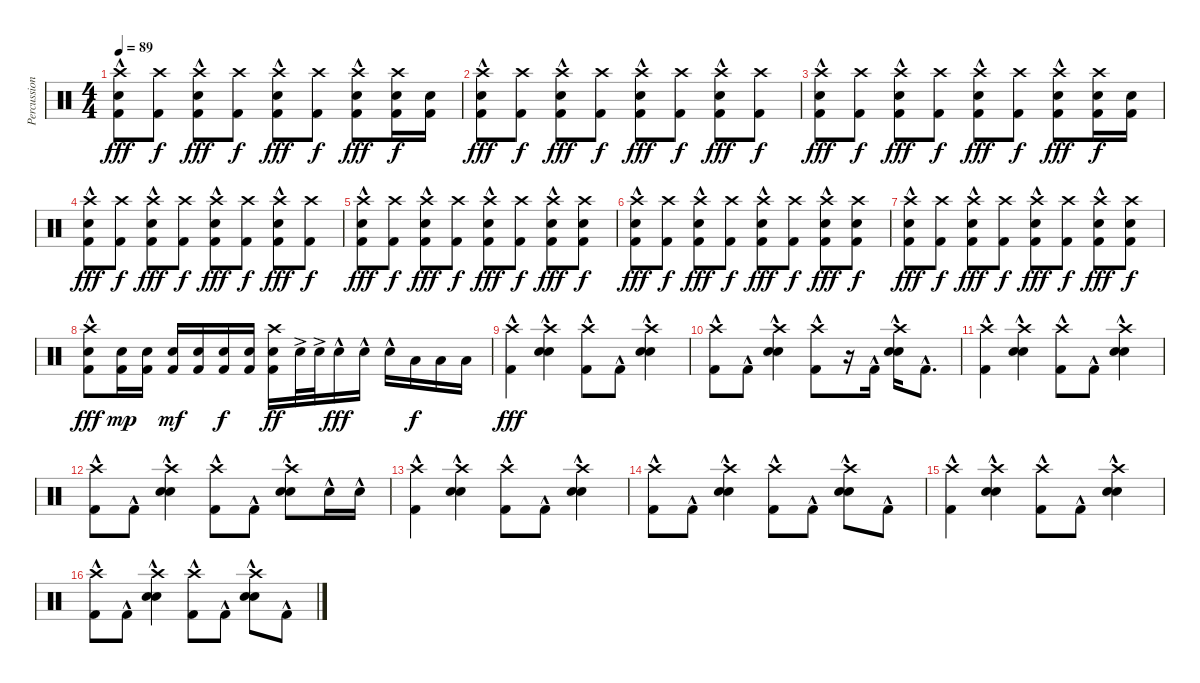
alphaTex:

\track ("Percussion" "Percussion") {instrument percussion}
\staff {score}
\articulation defaults
\ts (4 4)
\tempo 89
\clef neutral
\ks c
("Crash high (hit)" "Electric Snare (hit)" "Kick (hit) 2"{hac}).8{dy fff} ("Crash high (hit)" "Kick (hit) 2").8{dy f} ("Crash high (hit)" "Electric Snare (hit)" "Kick (hit) 2"{hac}).8{dy fff} ("Crash high (hit)" "Kick (hit) 2").8{dy f} ("Crash high (hit)" "Electric Snare (hit)" "Kick (hit) 2"{hac}).8{dy fff} ("Crash high (hit)" "Kick (hit) 2").8{dy f} ("Crash high (hit)" "Electric Snare (hit)" "Kick (hit) 2"{hac}).8{dy fff} ("Crash high (hit)" "Electric Snare (hit)" "Kick (hit) 2").16{dy f} ("Electric Snare (hit)" "Kick (hit) 2").16 |
("Crash high (hit)" "Electric Snare (hit)" "Kick (hit) 2"{hac}).8{dy fff} ("Crash high (hit)" "Kick (hit) 2").8{dy f} ("Crash high (hit)" "Electric Snare (hit)" "Kick (hit) 2"{hac}).8{dy fff} ("Crash high (hit)" "Kick (hit) 2").8{dy f} ("Crash high (hit)" "Electric Snare (hit)" "Kick (hit) 2"{hac}).8{dy fff} ("Crash high (hit)" "Kick (hit) 2").8{dy f} ("Crash high (hit)" "Electric Snare (hit)" "Kick (hit) 2"{hac}).8{dy fff} ("Crash high (hit)" "Kick (hit) 2").8{dy f} |
("Crash high (hit)" "Electric Snare (hit)" "Kick (hit) 2"{hac}).8{dy fff} ("Crash high (hit)" "Kick (hit) 2").8{dy f} ("Crash high (hit)" "Electric Snare (hit)" "Kick (hit) 2"{hac}).8{dy fff} ("Crash high (hit)" "Kick (hit) 2").8{dy f} ("Crash high (hit)" "Electric Snare (hit)" "Kick (hit) 2"{hac}).8{dy fff} ("Crash high (hit)" "Kick (hit) 2").8{dy f} ("Crash high (hit)" "Electric Snare (hit)" "Kick (hit) 2"{hac}).8{dy fff} ("Crash high (hit)" "Electric Snare (hit)" "Kick (hit) 2").16{dy f} ("Electric Snare (hit)" "Kick (hit) 2").16 |
("Crash high (hit)" "Electric Snare (hit)" "Kick (hit) 2"{hac}).8{dy fff} ("Crash high (hit)" "Kick (hit) 2").8{dy f} ("Crash high (hit)" "Electric Snare (hit)" "Kick (hit) 2"{hac}).8{dy fff} ("Crash high (hit)" "Kick (hit) 2").8{dy f} ("Crash high (hit)" "Electric Snare (hit)" "Kick (hit) 2"{hac}).8{dy fff} ("Crash high (hit)" "Kick (hit) 2").8{dy f} ("Crash high (hit)" "Electric Snare (hit)" "Kick (hit) 2"{hac}).8{dy fff} ("Crash high (hit)" "Kick (hit) 2").8{dy f} |
("Crash high (hit)" "Electric Snare (hit)" "Kick (hit) 2"{hac}).8{dy fff} ("Crash high (hit)" "Kick (hit) 2").8{dy f} ("Crash high (hit)" "Electric Snare (hit)" "Kick (hit) 2"{hac}).8{dy fff} ("Crash high (hit)" "Kick (hit) 2").8{dy f} ("Crash high (hit)" "Electric Snare (hit)" "Kick (hit) 2"{hac}).8{dy fff} ("Crash high (hit)" "Kick (hit) 2").8{dy f} ("Crash high (hit)" "Electric Snare (hit)" "Kick (hit) 2"{hac}).8{dy fff} ("Crash high (hit)" "Electric Snare (hit)" "Kick (hit) 2").8{dy f} |
("Crash high (hit)" "Electric Snare (hit)" "Kick (hit) 2"{hac}).8{dy fff} ("Crash high (hit)" "Kick (hit) 2").8{dy f} ("Crash high (hit)" "Electric Snare (hit)" "Kick (hit) 2"{hac}).8{dy fff} ("Crash high (hit)" "Kick (hit) 2").8{dy f} ("Crash high (hit)" "Electric Snare (hit)" "Kick (hit) 2"{hac}).8{dy fff} ("Crash high (hit)" "Kick (hit) 2").8{dy f} ("Crash high (hit)" "Electric Snare (hit)" "Kick (hit) 2"{hac}).8{dy fff} ("Crash high (hit)" "Electric Snare (hit)" "Kick (hit) 2").8{dy f} |
("Crash high (hit)" "Electric Snare (hit)" "Kick (hit) 2"{hac}).8{dy fff} ("Crash high (hit)" "Kick (hit) 2").8{dy f} ("Crash high (hit)" "Electric Snare (hit)" "Kick (hit) 2"{hac}).8{dy fff} ("Crash high (hit)" "Kick (hit) 2").8{dy f} ("Crash high (hit)" "Electric Snare (hit)" "Kick (hit) 2"{hac}).8{dy fff} ("Crash high (hit)" "Kick (hit) 2").8{dy f} ("Crash high (hit)" "Electric Snare (hit)" "Kick (hit) 2"{hac}).8{dy fff} ("Crash high (hit)" "Electric Snare (hit)" "Kick (hit) 2").8{dy f} |
("Crash high (hit)" "Electric Snare (hit)" "Kick (hit) 2"{hac}).8{dy fff} ("Electric Snare (hit)" "Kick (hit) 2").16{dy mp} ("Electric Snare (hit)" "Kick (hit) 2").16 ("Electric Snare (hit)" "Kick (hit) 2").16{dy mf} ("Electric Snare (hit)" "Kick (hit) 2").16 ("Electric Snare (hit)" "Kick (hit) 2").16{dy f} ("Electric Snare (hit)" "Kick (hit) 2").16 ("Crash high (hit)" "Electric Snare (hit)" "Kick (hit) 2").16{dy ff} "Snare (hit) 2"{ac}.32 "Snare (hit) 2"{ac}.32 "Snare (hit) 2"{hac}.16{dy fff} "Snare (hit) 2"{hac}.16 "Snare (hit) 2"{hac}.16 "Low Tom (hit)".16{dy f} "Low Tom (hit)".16 "Low Floor Tom (hit)".16 |
("Crash high (hit)" "Kick (hit) 2"{hac}).4{dy fff} ("Crash high (hit)" "Snare (hit) 2" "Electric Snare (hit)"{hac}).4 ("Crash high (hit)" "Kick (hit) 2"{hac}).8 "Kick (hit) 2"{hac}.8 ("Crash high (hit)" "Snare (hit) 2" "Electric Snare (hit)"{hac}).4 |
("Crash high (hit)" "Kick (hit) 2"{hac}).8 "Kick (hit) 2"{hac}.8 ("Crash high (hit)" "Snare (hit) 2" "Electric Snare (hit)"{hac}).4 ("Crash high (hit)" "Kick (hit) 2"{hac}).8 r.16 "Kick (hit) 2"{hac}.16 ("Crash high (hit)" "Snare (hit) 2" "Electric Snare (hit)"{hac}).16 "Kick (hit) 2"{hac}.8{d} |
("Crash high (hit)" "Kick (hit) 2"{hac}).4 ("Crash high (hit)" "Snare (hit) 2" "Electric Snare (hit)"{hac}).4 ("Crash high (hit)" "Kick (hit) 2"{hac}).8 "Kick (hit) 2"{hac}.8 ("Crash high (hit)" "Snare (hit) 2" "Electric Snare (hit)"{hac}).4 |
("Crash high (hit)" "Kick (hit) 2"{hac}).8 "Kick (hit) 2"{hac}.8 ("Crash high (hit)" "Snare (hit) 2" "Electric Snare (hit)"{hac}).4 ("Crash high (hit)" "Kick (hit) 2"{hac}).8 "Kick (hit) 2"{hac}.8 ("Crash high (hit)" "Snare (hit) 2" "Electric Snare (hit)"{hac}).8 "Electric Snare (hit)"{hac}.16 "Electric Snare (hit)"{hac}.16 |
("Crash high (hit)" "Kick (hit) 2"{hac}).4 ("Crash high (hit)" "Snare (hit) 2" "Electric Snare (hit)"{hac}).4 ("Crash high (hit)" "Kick (hit) 2"{hac}).8 "Kick (hit) 2"{hac}.8 ("Crash high (hit)" "Snare (hit) 2" "Electric Snare (hit)"{hac}).4 |
("Crash high (hit)" "Kick (hit) 2"{hac}).8 "Kick (hit) 2"{hac}.8 ("Crash high (hit)" "Snare (hit) 2" "Electric Snare (hit)"{hac}).4 ("Crash high (hit)" "Kick (hit) 2"{hac}).8 "Kick (hit) 2"{hac}.8 ("Crash high (hit)" "Snare (hit) 2" "Electric Snare (hit)"{hac}).8 "Kick (hit) 2"{hac}.8 |
("Crash high (hit)" "Kick (hit) 2"{hac}).4 ("Crash high (hit)" "Snare (hit) 2" "Electric Snare (hit)"{hac}).4 ("Crash high (hit)" "Kick (hit) 2"{hac}).8 "Kick (hit) 2"{hac}.8 ("Crash high (hit)" "Snare (hit) 2" "Electric Snare (hit)"{hac}).4 |
("Crash high (hit)" "Kick (hit) 2"{hac}).8 "Kick (hit) 2"{hac}.8 ("Crash high (hit)" "Snare (hit) 2" "Electric Snare (hit)"{hac}).4 ("Crash high (hit)" "Kick (hit) 2"{hac}).8 "Kick (hit) 2"{hac}.8 ("Crash high (hit)" "Snare (hit) 2" "Electric Snare (hit)"{hac}).8 "Kick (hit) 2"{hac}.8
